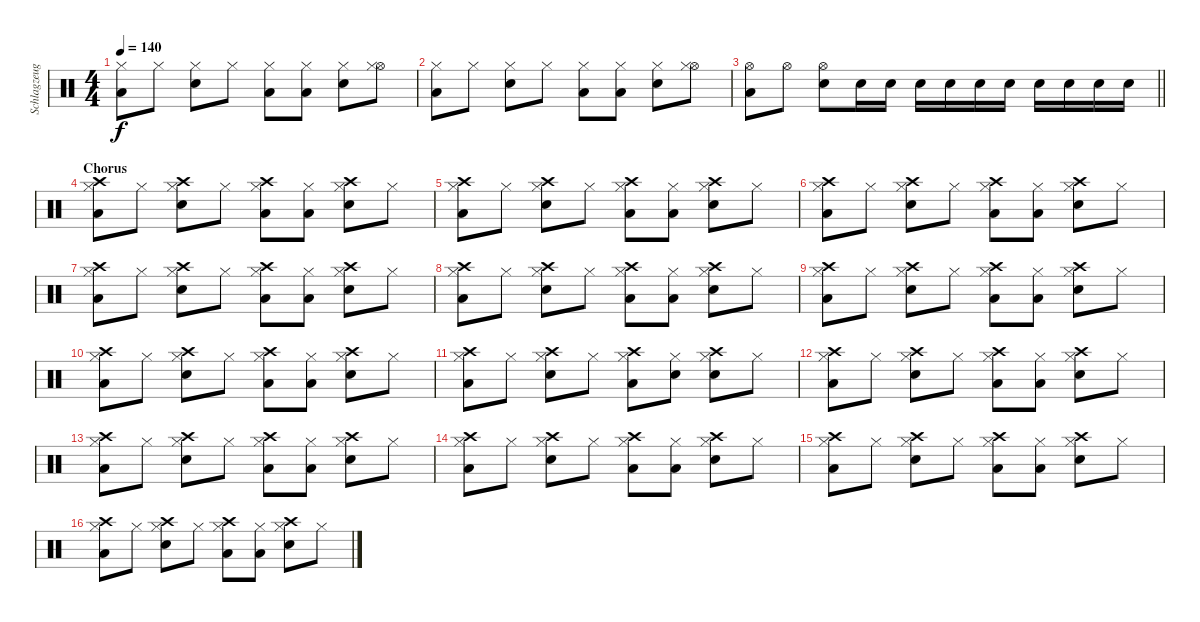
\track ("Schlagzeug 2nd" "Schlagzeug") {instrument percussion}
\staff {score}
\articulation defaults
\ts (4 4)
\tempo 140
\clef neutral
\ks c
("Hi-Hat (closed)" "Low Tom (hit)").8{dy f} "Hi-Hat (closed)".8 ("Hi-Hat (closed)" "Electric Snare (hit)").8 "Hi-Hat (closed)".8 ("Hi-Hat (closed)" "Low Tom (hit)").8 ("Hi-Hat (closed)" "Low Tom (hit)").8 ("Hi-Hat (closed)" "Electric Snare (hit)").8 ("Hi-Hat (open)" "Hi-Hat (closed)").8 |
("Hi-Hat (closed)" "Low Tom (hit)").8 "Hi-Hat (closed)".8 ("Hi-Hat (closed)" "Electric Snare (hit)").8 "Hi-Hat (closed)".8 ("Hi-Hat (closed)" "Low Tom (hit)").8 ("Hi-Hat (closed)" "Low Tom (hit)").8 ("Hi-Hat (closed)" "Electric Snare (hit)").8 ("Hi-Hat (open)" "Hi-Hat (closed)").8 |
\barLineRight lightlight
("Hi-Hat (open)" "Low Tom (hit)").8 "Hi-Hat (open)".8 ("Hi-Hat (open)" "Electric Snare (hit)").8 "Electric Snare (hit)".16 "Electric Snare (hit)".16 "Electric Snare (hit)".16 "Electric Snare (hit)".16 "Electric Snare (hit)".16 "Electric Snare (hit)".16 "Electric Snare (hit)".16 "Electric Snare (hit)".16 "Electric Snare (hit)".16 "Electric Snare (hit)".16 |
\section ("" "Chorus")
("Crash high (hit)" "Hi-Hat (closed)" "Low Tom (hit)").8 "Hi-Hat (closed)".8 ("Crash high (hit)" "Hi-Hat (closed)" "Electric Snare (hit)").8 "Hi-Hat (closed)".8 ("Crash high (hit)" "Hi-Hat (closed)" "Low Tom (hit)").8 ("Hi-Hat (closed)" "Low Tom (hit)").8 ("Crash high (hit)" "Hi-Hat (closed)" "Electric Snare (hit)").8 "Hi-Hat (closed)".8 |
("Crash high (hit)" "Hi-Hat (closed)" "Low Tom (hit)").8 "Hi-Hat (closed)".8 ("Crash high (hit)" "Hi-Hat (closed)" "Electric Snare (hit)").8 "Hi-Hat (closed)".8 ("Crash high (hit)" "Hi-Hat (closed)" "Low Tom (hit)").8 ("Hi-Hat (closed)" "Low Tom (hit)").8 ("Crash high (hit)" "Hi-Hat (closed)" "Electric Snare (hit)").8 "Hi-Hat (closed)".8 |
("Crash high (hit)" "Hi-Hat (closed)" "Low Tom (hit)").8 "Hi-Hat (closed)".8 ("Crash high (hit)" "Hi-Hat (closed)" "Electric Snare (hit)").8 "Hi-Hat (closed)".8 ("Crash high (hit)" "Hi-Hat (closed)" "Low Tom (hit)").8 ("Hi-Hat (closed)" "Low Tom (hit)").8 ("Crash high (hit)" "Hi-Hat (closed)" "Electric Snare (hit)").8 "Hi-Hat (closed)".8 |
("Crash high (hit)" "Hi-Hat (closed)" "Low Tom (hit)").8 "Hi-Hat (closed)".8 ("Crash high (hit)" "Hi-Hat (closed)" "Electric Snare (hit)").8 "Hi-Hat (closed)".8 ("Crash high (hit)" "Hi-Hat (closed)" "Low Tom (hit)").8 ("Hi-Hat (closed)" "Low Tom (hit)").8 ("Crash high (hit)" "Hi-Hat (closed)" "Electric Snare (hit)").8 "Hi-Hat (closed)".8 |
("Crash high (hit)" "Hi-Hat (closed)" "Low Tom (hit)").8 "Hi-Hat (closed)".8 ("Crash high (hit)" "Hi-Hat (closed)" "Electric Snare (hit)").8 "Hi-Hat (closed)".8 ("Crash high (hit)" "Hi-Hat (closed)" "Low Tom (hit)").8 ("Hi-Hat (closed)" "Low Tom (hit)").8 ("Crash high (hit)" "Hi-Hat (closed)" "Electric Snare (hit)").8 "Hi-Hat (closed)".8 |
("Crash high (hit)" "Hi-Hat (closed)" "Low Tom (hit)").8 "Hi-Hat (closed)".8 ("Crash high (hit)" "Hi-Hat (closed)" "Electric Snare (hit)").8 "Hi-Hat (closed)".8 ("Crash high (hit)" "Hi-Hat (closed)" "Low Tom (hit)").8 ("Hi-Hat (closed)" "Low Tom (hit)").8 ("Crash high (hit)" "Hi-Hat (closed)" "Electric Snare (hit)").8 "Hi-Hat (closed)".8 |
("Crash high (hit)" "Hi-Hat (closed)" "Low Tom (hit)").8 "Hi-Hat (closed)".8 ("Crash high (hit)" "Hi-Hat (closed)" "Electric Snare (hit)").8 "Hi-Hat (closed)".8 ("Crash high (hit)" "Hi-Hat (closed)" "Low Tom (hit)").8 ("Hi-Hat (closed)" "Low Tom (hit)").8 ("Crash high (hit)" "Hi-Hat (closed)" "Electric Snare (hit)").8 "Hi-Hat (closed)".8 |
("Crash high (hit)" "Hi-Hat (closed)" "Low Tom (hit)").8 "Hi-Hat (closed)".8 ("Crash high (hit)" "Hi-Hat (closed)" "Electric Snare (hit)").8 "Hi-Hat (closed)".8 ("Crash high (hit)" "Hi-Hat (closed)" "Low Tom (hit)").8 ("Hi-Hat (closed)" "Electric Snare (hit)").8 ("Crash high (hit)" "Hi-Hat (closed)" "Electric Snare (hit)").8 "Hi-Hat (closed)".8 |
("Crash high (hit)" "Hi-Hat (closed)" "Low Tom (hit)").8 "Hi-Hat (closed)".8 ("Crash high (hit)" "Hi-Hat (closed)" "Electric Snare (hit)").8 "Hi-Hat (closed)".8 ("Crash high (hit)" "Hi-Hat (closed)" "Low Tom (hit)").8 ("Hi-Hat (closed)" "Low Tom (hit)").8 ("Crash high (hit)" "Hi-Hat (closed)" "Electric Snare (hit)").8 "Hi-Hat (closed)".8 |
("Crash high (hit)" "Hi-Hat (closed)" "Low Tom (hit)").8 "Hi-Hat (closed)".8 ("Crash high (hit)" "Hi-Hat (closed)" "Electric Snare (hit)").8 "Hi-Hat (closed)".8 ("Crash high (hit)" "Hi-Hat (closed)" "Low Tom (hit)").8 ("Hi-Hat (closed)" "Low Tom (hit)").8 ("Crash high (hit)" "Hi-Hat (closed)" "Electric Snare (hit)").8 "Hi-Hat (closed)".8 |
("Crash high (hit)" "Hi-Hat (closed)" "Low Tom (hit)").8 "Hi-Hat (closed)".8 ("Crash high (hit)" "Hi-Hat (closed)" "Electric Snare (hit)").8 "Hi-Hat (closed)".8 ("Crash high (hit)" "Hi-Hat (closed)" "Low Tom (hit)").8 ("Hi-Hat (closed)" "Low Tom (hit)").8 ("Crash high (hit)" "Hi-Hat (closed)" "Electric Snare (hit)").8 "Hi-Hat (closed)".8 |
("Crash high (hit)" "Hi-Hat (closed)" "Low Tom (hit)").8 "Hi-Hat (closed)".8 ("Crash high (hit)" "Hi-Hat (closed)" "Electric Snare (hit)").8 "Hi-Hat (closed)".8 ("Crash high (hit)" "Hi-Hat (closed)" "Low Tom (hit)").8 ("Hi-Hat (closed)" "Low Tom (hit)").8 ("Crash high (hit)" "Hi-Hat (closed)" "Electric Snare (hit)").8 "Hi-Hat (closed)".8 |
("Crash high (hit)" "Hi-Hat (closed)" "Low Tom (hit)").8 "Hi-Hat (closed)".8 ("Crash high (hit)" "Hi-Hat (closed)" "Electric Snare (hit)").8 "Hi-Hat (closed)".8 ("Crash high (hit)" "Hi-Hat (closed)" "Low Tom (hit)").8 ("Hi-Hat (closed)" "Low Tom (hit)").8 ("Crash high (hit)" "Hi-Hat (closed)" "Electric Snare (hit)").8 "Hi-Hat (closed)".8
